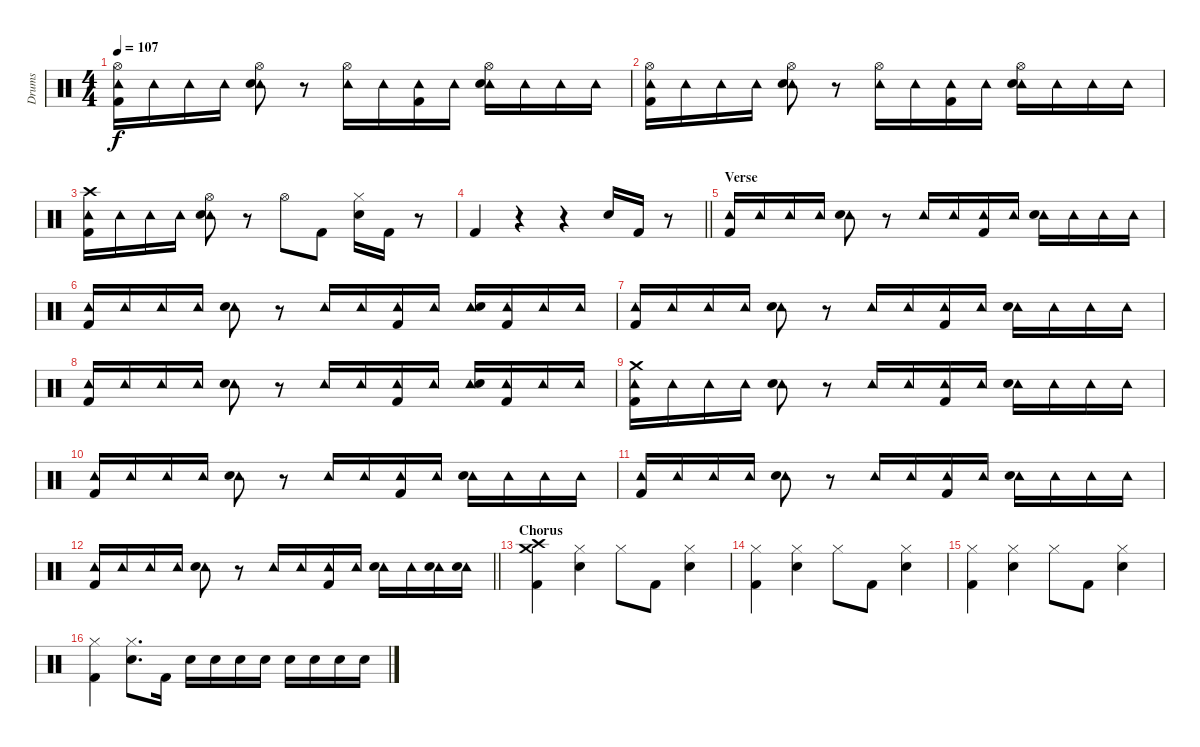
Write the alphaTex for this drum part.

\track ("Drums" "Drums") {instrument percussion}
\staff {score}
\articulation defaults
\ts (4 4)
\tempo 107
\clef neutral
\ks c
("Hi-Hat (open)" "Tambourine (hit)" "Kick (hit) 2").16{dy f} "Tambourine (hit)".16 "Tambourine (hit)".16 "Tambourine (hit)".16 ("Hi-Hat (open)" "Tambourine (hit)" "Electric Snare (hit)").8 r.8 ("Hi-Hat (open)" "Tambourine (hit)").16 "Tambourine (hit)".16 ("Tambourine (hit)" "Kick (hit) 2").16 "Tambourine (hit)".16 ("Hi-Hat (open)" "Tambourine (hit)" "Electric Snare (hit)").16 "Tambourine (hit)".16 "Tambourine (hit)".16 "Tambourine (hit)".16 |
("Hi-Hat (open)" "Tambourine (hit)" "Kick (hit) 2").16 "Tambourine (hit)".16 "Tambourine (hit)".16 "Tambourine (hit)".16 ("Hi-Hat (open)" "Tambourine (hit)" "Electric Snare (hit)").8 r.8 ("Hi-Hat (open)" "Tambourine (hit)").16 "Tambourine (hit)".16 ("Tambourine (hit)" "Kick (hit) 2").16 "Tambourine (hit)".16 ("Hi-Hat (open)" "Tambourine (hit)" "Electric Snare (hit)").16 "Tambourine (hit)".16 "Tambourine (hit)".16 "Tambourine (hit)".16 |
("Crash high (hit)" "Tambourine (hit)" "Kick (hit) 2").16 "Tambourine (hit)".16 "Tambourine (hit)".16 "Tambourine (hit)".16 ("Hi-Hat (open)" "Tambourine (hit)" "Electric Snare (hit)").8 r.8 "Hi-Hat (open)".8 "Kick (hit) 2".8 ("Hi-Hat (closed)" "Electric Snare (hit)").16 "Kick (hit) 2".16 r.8 |
\barLineRight lightlight "Kick (hit) 2".4
r.4 r.4 "Electric Snare (hit)".16 "Kick (hit) 2".16 r.8 |
\section ("" "Verse")
("Tambourine (hit)" "Kick (hit) 2").16 "Tambourine (hit)".16 "Tambourine (hit)".16 "Tambourine (hit)".16 ("Tambourine (hit)" "Electric Snare (hit)").8 r.8 "Tambourine (hit)".16 "Tambourine (hit)".16 ("Tambourine (hit)" "Kick (hit) 2").16 "Tambourine (hit)".16 ("Tambourine (hit)" "Electric Snare (hit)").16 "Tambourine (hit)".16 "Tambourine (hit)".16 "Tambourine (hit)".16 |
("Tambourine (hit)" "Kick (hit) 2").16 "Tambourine (hit)".16 "Tambourine (hit)".16 "Tambourine (hit)".16 ("Tambourine (hit)" "Electric Snare (hit)").8 r.8 "Tambourine (hit)".16 "Tambourine (hit)".16 ("Tambourine (hit)" "Kick (hit) 2").16 "Tambourine (hit)".16 ("Tambourine (hit)" "Electric Snare (hit)").16 ("Tambourine (hit)" "Kick (hit) 2").16 "Tambourine (hit)".16 "Tambourine (hit)".16 |
("Tambourine (hit)" "Kick (hit) 2").16 "Tambourine (hit)".16 "Tambourine (hit)".16 "Tambourine (hit)".16 ("Tambourine (hit)" "Electric Snare (hit)").8 r.8 "Tambourine (hit)".16 "Tambourine (hit)".16 ("Tambourine (hit)" "Kick (hit) 2").16 "Tambourine (hit)".16 ("Tambourine (hit)" "Electric Snare (hit)").16 "Tambourine (hit)".16 "Tambourine (hit)".16 "Tambourine (hit)".16 |
("Tambourine (hit)" "Kick (hit) 2").16 "Tambourine (hit)".16 "Tambourine (hit)".16 "Tambourine (hit)".16 ("Tambourine (hit)" "Electric Snare (hit)").8 r.8 "Tambourine (hit)".16 "Tambourine (hit)".16 ("Tambourine (hit)" "Kick (hit) 2").16 "Tambourine (hit)".16 ("Tambourine (hit)" "Electric Snare (hit)").16 ("Tambourine (hit)" "Kick (hit) 2").16 "Tambourine (hit)".16 "Tambourine (hit)".16 |
("Crash medium (hit)" "Tambourine (hit)" "Kick (hit) 2").16 "Tambourine (hit)".16 "Tambourine (hit)".16 "Tambourine (hit)".16 ("Tambourine (hit)" "Electric Snare (hit)").8 r.8 "Tambourine (hit)".16 "Tambourine (hit)".16 ("Tambourine (hit)" "Kick (hit) 2").16 "Tambourine (hit)".16 ("Tambourine (hit)" "Electric Snare (hit)").16 "Tambourine (hit)".16 "Tambourine (hit)".16 "Tambourine (hit)".16 |
("Tambourine (hit)" "Kick (hit) 2").16 "Tambourine (hit)".16 "Tambourine (hit)".16 "Tambourine (hit)".16 ("Tambourine (hit)" "Electric Snare (hit)").8 r.8 "Tambourine (hit)".16 "Tambourine (hit)".16 ("Tambourine (hit)" "Kick (hit) 2").16 "Tambourine (hit)".16 ("Tambourine (hit)" "Electric Snare (hit)").16 "Tambourine (hit)".16 "Tambourine (hit)".16 "Tambourine (hit)".16 |
("Tambourine (hit)" "Kick (hit) 2").16 "Tambourine (hit)".16 "Tambourine (hit)".16 "Tambourine (hit)".16 ("Tambourine (hit)" "Electric Snare (hit)").8 r.8 "Tambourine (hit)".16 "Tambourine (hit)".16 ("Tambourine (hit)" "Kick (hit) 2").16 "Tambourine (hit)".16 ("Tambourine (hit)" "Electric Snare (hit)").16 "Tambourine (hit)".16 "Tambourine (hit)".16 "Tambourine (hit)".16 |
\barLineRight lightlight
("Tambourine (hit)" "Kick (hit) 2").16 "Tambourine (hit)".16 "Tambourine (hit)".16 "Tambourine (hit)".16 ("Tambourine (hit)" "Electric Snare (hit)").8 r.8 "Tambourine (hit)".16 "Tambourine (hit)".16 ("Tambourine (hit)" "Kick (hit) 2").16 "Tambourine (hit)".16 ("Tambourine (hit)" "Electric Snare (hit)").16 "Tambourine (hit)".16 ("Tambourine (hit)" "Electric Snare (hit)").16 ("Tambourine (hit)" "Electric Snare (hit)").16 |
\section ("" "Chorus")
("Crash high (hit)" "Crash medium (hit)" "Kick (hit) 2").4 ("Hi-Hat (closed)" "Electric Snare (hit)").4 "Hi-Hat (closed)".8 "Kick (hit) 2".8 ("Hi-Hat (closed)" "Electric Snare (hit)").4 |
("Hi-Hat (closed)" "Kick (hit) 2").4 ("Hi-Hat (closed)" "Electric Snare (hit)").4 "Hi-Hat (closed)".8 "Kick (hit) 2".8 ("Hi-Hat (closed)" "Electric Snare (hit)").4 |
("Hi-Hat (closed)" "Kick (hit) 2").4 ("Hi-Hat (closed)" "Electric Snare (hit)").4 "Hi-Hat (closed)".8 "Kick (hit) 2".8 ("Hi-Hat (closed)" "Electric Snare (hit)").4 |
("Hi-Hat (closed)" "Kick (hit) 2").4 ("Hi-Hat (closed)" "Electric Snare (hit)").8{d} "Kick (hit) 2".16 "Electric Snare (hit)".16 "Electric Snare (hit)".16 "Electric Snare (hit)".16 "Electric Snare (hit)".16 "Electric Snare (hit)".16 "Electric Snare (hit)".16 "Electric Snare (hit)".16 "Electric Snare (hit)".16
